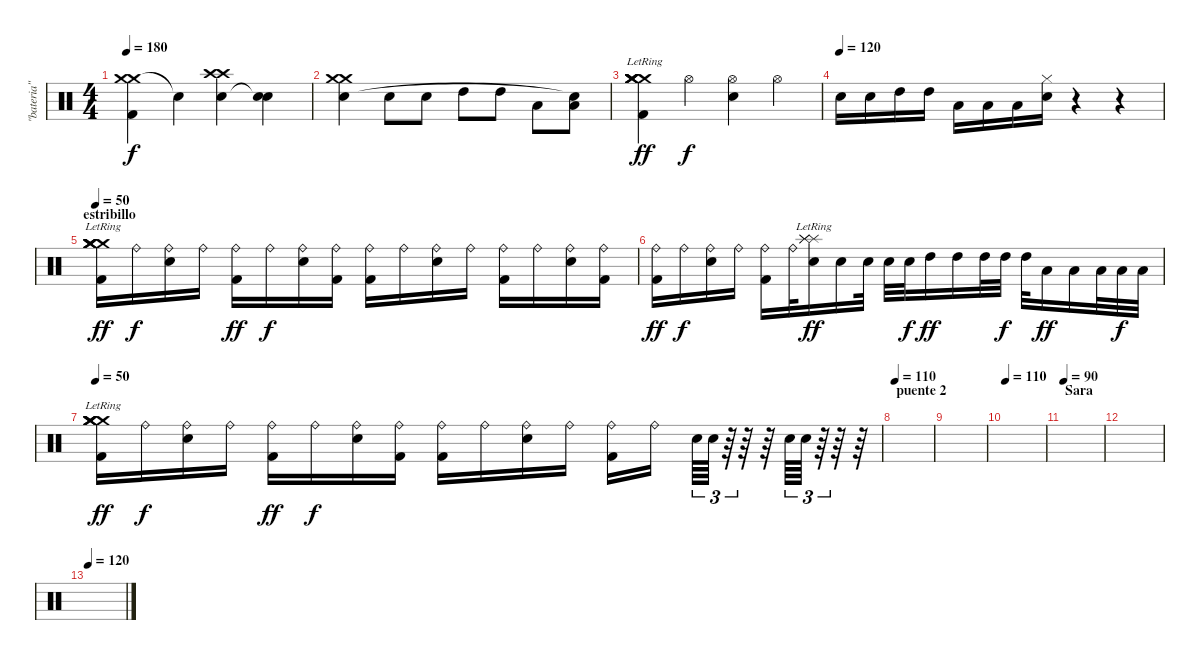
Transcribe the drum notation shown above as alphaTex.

\track ("\"bateria\"" "\"bateria\"") {instrument percussion}
\staff {score}
\articulation defaults
\ts (4 4)
\tempo 180
\clef neutral
\ks c
("Crash medium (hit)" "Kick (hit) 2" "Crash medium (hit)").4{dy f} "Snare (hit)"{t}.4 ("Crash high (hit)" "Electric Snare (hit)" "Crash high (hit)").4 ("Electric Snare (hit)" "Snare (hit)"{t}).4 |
("Crash medium (hit)" "Electric Snare (hit)" "Crash medium (hit)").4 "Snare (hit) 2".8 "Snare (hit) 2".8 "High Tom (hit)".8 "High Tom (hit)".8 "Low Tom (hit)".8 ("Low Tom (hit)" "Snare (hit)"{t}).8 |
("Kick (hit) 2" "Crash medium (hit)"{lr} "Crash medium (hit)"{lr} "Crash medium (hit)"{lr} "Crash medium (hit)"{lr} "Crash medium (hit)"{lr}).4{dy ff} "Hi-Hat (open)".4{dy f} ("Hi-Hat (open)" "Electric Snare (hit)").4 "Hi-Hat (open)".4 |
\tempo (120)
"Snare (hit) 2".16 "Snare (hit) 2".16 "High Tom (hit)".16 "High Tom (hit)".16 "Low Tom (hit)".16 "Low Tom (hit)".16 "Low Floor Tom (hit)".16 ("Electric Snare (hit)" "Hi-Hat (closed)").16 r.4 r.4 |
\section ("" "estribillo")
\tempo 50
("Kick (hit) 2" "Crash medium (hit)"{lr} "Crash medium (hit)"{lr} "Crash medium (hit)"{lr} "Crash medium (hit)"{lr} "Crash medium (hit)"{lr}).16{dy ff} "Ride (bell)".16{dy f} ("Ride (bell)" "Electric Snare (hit)").16 "Ride (bell)".16 ("Ride (bell)" "Kick (hit) 2").16{dy ff} "Ride (bell)".16{dy f} ("Ride (bell)" "Electric Snare (hit)").16 ("Ride (bell)" "Kick (hit) 2").16 ("Ride (bell)" "Kick (hit) 2").16 "Ride (bell)".16 ("Ride (bell)" "Electric Snare (hit)").16 "Ride (bell)".16 ("Ride (bell)" "Kick (hit) 2").16 "Ride (bell)".16 ("Ride (bell)" "Electric Snare (hit)").16 ("Ride (bell)" "Kick (hit) 2").16 |
("Ride (bell)" "Kick (hit) 2").16{dy ff} "Ride (bell)".16{dy f} ("Ride (bell)" "Electric Snare (hit)").16 "Ride (bell)".16 ("Ride (bell)" "Kick (hit) 2").16 "Ride (bell)".32 ("Splash (hit)"{lr} "Electric Snare (hit)" "Splash (hit)"{lr} "Splash (hit)"{lr}).16{dy ff} "Snare (hit) 2".16 "Snare (hit) 2".32 "Snare (hit) 2".32 "Snare (hit) 2".32{dy f} "High Tom (hit)".16{dy ff} "High Tom (hit)".16 "High Tom (hit)".32 "High Tom (hit)".32{dy f} "High Tom (hit)".32 "Low Tom (hit)".16{dy ff} "Low Tom (hit)".16 "Low Tom (hit)".32 "Low Tom (hit)".32{dy f} "Low Tom (hit)".32 |
\tempo 50
("Kick (hit) 2" "Crash medium (hit)"{lr} "Crash medium (hit)"{lr} "Crash medium (hit)"{lr} "Crash medium (hit)"{lr} "Crash medium (hit)"{lr}).16{dy ff} "Ride (bell)".16{dy f} ("Ride (bell)" "Electric Snare (hit)").16 "Ride (bell)".16 ("Ride (bell)" "Kick (hit) 2").16{dy ff} "Ride (bell)".16{dy f} ("Ride (bell)" "Electric Snare (hit)").16 ("Ride (bell)" "Kick (hit) 2").16 ("Ride (bell)" "Kick (hit) 2").16 "Ride (bell)".16 ("Ride (bell)" "Electric Snare (hit)").16 "Ride (bell)".16 ("Ride (bell)" "Kick (hit) 2").16 "Ride (bell)".16 "Snare (hit) 2".64{tu (3 2)} "Snare (hit) 2".64{tu (3 2)} r.64{tu (3 2)} r.64 r.64 "Snare (hit) 2".64{tu (3 2)} "Snare (hit) 2".64{tu (3 2)} r.64{tu (3 2)} r.64 r.64 |
\section ("" "puente 2")
\tempo 110
|
|
\tempo 110
|
\section ("" "Sara")
\tempo 90
|
|
\tempo 120
